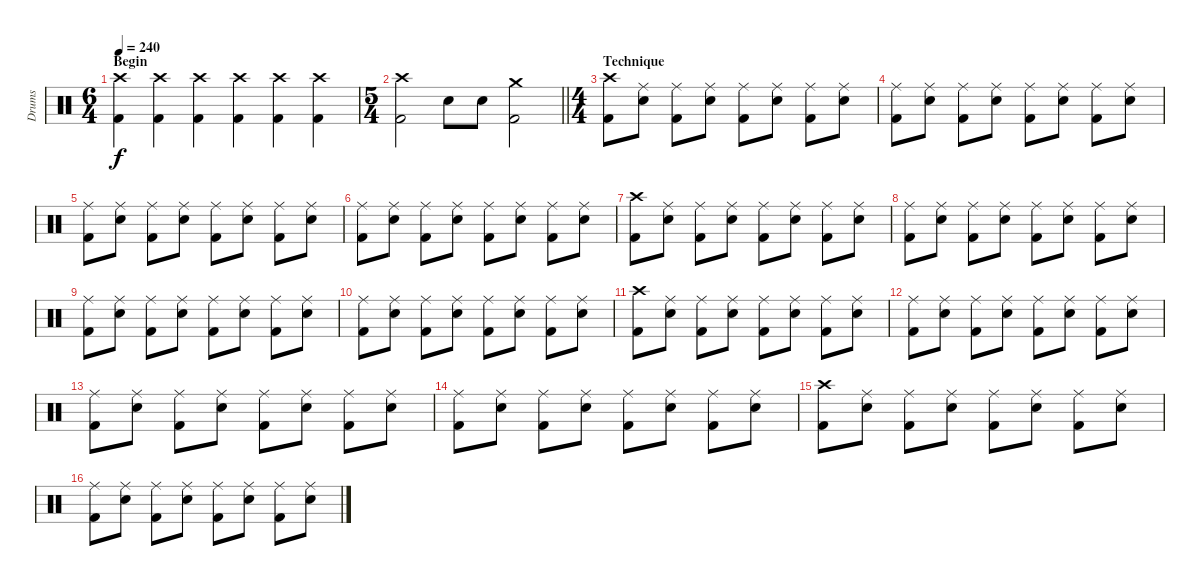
\track ("Drums" "Drums") {instrument percussion}
\staff {score}
\articulation defaults
\ts (6 4)
\section ("" "Begin")
\tempo 240
\clef neutral
\ks c
("Crash high (hit)" "Kick (hit) 2").4{dy f} ("Crash high (hit)" "Kick (hit) 2").4 ("Crash high (hit)" "Kick (hit) 2").4 ("Crash high (hit)" "Kick (hit) 2").4 ("Crash high (hit)" "Kick (hit) 2").4 ("Crash high (hit)" "Kick (hit) 2").4 |
\ts (5 4)
\barLineRight lightlight
("Crash high (hit)" "Kick (hit) 2").2 "Snare (hit) 2".8 "Snare (hit) 2".8 ("Crash medium (hit)" "Kick (hit) 2").2 |
\ts (4 4)
\section ("" "Technique")
("Crash high (hit)" "Kick (hit) 2").8 ("Ride (middle)" "Snare (hit) 2").8 ("Ride (middle)" "Kick (hit) 2").8 ("Ride (middle)" "Snare (hit) 2").8 ("Ride (middle)" "Kick (hit) 2").8 ("Ride (middle)" "Snare (hit) 2").8 ("Ride (middle)" "Kick (hit) 2").8 ("Ride (middle)" "Snare (hit) 2").8 |
("Ride (middle)" "Kick (hit) 2").8 ("Ride (middle)" "Snare (hit) 2").8 ("Ride (middle)" "Kick (hit) 2").8 ("Ride (middle)" "Snare (hit) 2").8 ("Ride (middle)" "Kick (hit) 2").8 ("Ride (middle)" "Snare (hit) 2").8 ("Ride (middle)" "Kick (hit) 2").8 ("Ride (middle)" "Snare (hit) 2").8 |
("Ride (middle)" "Kick (hit) 2").8 ("Ride (middle)" "Snare (hit) 2").8 ("Ride (middle)" "Kick (hit) 2").8 ("Ride (middle)" "Snare (hit) 2").8 ("Ride (middle)" "Kick (hit) 2").8 ("Ride (middle)" "Snare (hit) 2").8 ("Ride (middle)" "Kick (hit) 2").8 ("Ride (middle)" "Snare (hit) 2").8 |
("Ride (middle)" "Kick (hit) 2").8 ("Ride (middle)" "Snare (hit) 2").8 ("Ride (middle)" "Kick (hit) 2").8 ("Ride (middle)" "Snare (hit) 2").8 ("Ride (middle)" "Kick (hit) 2").8 ("Ride (middle)" "Snare (hit) 2").8 ("Ride (middle)" "Kick (hit) 2").8 ("Ride (middle)" "Snare (hit) 2").8 |
("Crash high (hit)" "Kick (hit) 2").8 ("Ride (middle)" "Snare (hit) 2").8 ("Ride (middle)" "Kick (hit) 2").8 ("Ride (middle)" "Snare (hit) 2").8 ("Ride (middle)" "Kick (hit) 2").8 ("Ride (middle)" "Snare (hit) 2").8 ("Ride (middle)" "Kick (hit) 2").8 ("Ride (middle)" "Snare (hit) 2").8 |
("Ride (middle)" "Kick (hit) 2").8 ("Ride (middle)" "Snare (hit) 2").8 ("Ride (middle)" "Kick (hit) 2").8 ("Ride (middle)" "Snare (hit) 2").8 ("Ride (middle)" "Kick (hit) 2").8 ("Ride (middle)" "Snare (hit) 2").8 ("Ride (middle)" "Kick (hit) 2").8 ("Ride (middle)" "Snare (hit) 2").8 |
("Ride (middle)" "Kick (hit) 2").8 ("Ride (middle)" "Snare (hit) 2").8 ("Ride (middle)" "Kick (hit) 2").8 ("Ride (middle)" "Snare (hit) 2").8 ("Ride (middle)" "Kick (hit) 2").8 ("Ride (middle)" "Snare (hit) 2").8 ("Ride (middle)" "Kick (hit) 2").8 ("Ride (middle)" "Snare (hit) 2").8 |
("Ride (middle)" "Kick (hit) 2").8 ("Ride (middle)" "Snare (hit) 2").8 ("Ride (middle)" "Kick (hit) 2").8 ("Ride (middle)" "Snare (hit) 2").8 ("Ride (middle)" "Kick (hit) 2").8 ("Ride (middle)" "Snare (hit) 2").8 ("Ride (middle)" "Kick (hit) 2").8 ("Ride (middle)" "Snare (hit) 2").8 |
("Crash high (hit)" "Kick (hit) 2").8 ("Ride (middle)" "Snare (hit) 2").8 ("Ride (middle)" "Kick (hit) 2").8 ("Ride (middle)" "Snare (hit) 2").8 ("Ride (middle)" "Kick (hit) 2").8 ("Ride (middle)" "Snare (hit) 2").8 ("Ride (middle)" "Kick (hit) 2").8 ("Ride (middle)" "Snare (hit) 2").8 |
("Ride (middle)" "Kick (hit) 2").8 ("Ride (middle)" "Snare (hit) 2").8 ("Ride (middle)" "Kick (hit) 2").8 ("Ride (middle)" "Snare (hit) 2").8 ("Ride (middle)" "Kick (hit) 2").8 ("Ride (middle)" "Snare (hit) 2").8 ("Ride (middle)" "Kick (hit) 2").8 ("Ride (middle)" "Snare (hit) 2").8 |
("Ride (middle)" "Kick (hit) 2").8 ("Ride (middle)" "Snare (hit) 2").8 ("Ride (middle)" "Kick (hit) 2").8 ("Ride (middle)" "Snare (hit) 2").8 ("Ride (middle)" "Kick (hit) 2").8 ("Ride (middle)" "Snare (hit) 2").8 ("Ride (middle)" "Kick (hit) 2").8 ("Ride (middle)" "Snare (hit) 2").8 |
("Ride (middle)" "Kick (hit) 2").8 ("Ride (middle)" "Snare (hit) 2").8 ("Ride (middle)" "Kick (hit) 2").8 ("Ride (middle)" "Snare (hit) 2").8 ("Ride (middle)" "Kick (hit) 2").8 ("Ride (middle)" "Snare (hit) 2").8 ("Ride (middle)" "Kick (hit) 2").8 ("Ride (middle)" "Snare (hit) 2").8 |
("Crash high (hit)" "Kick (hit) 2").8 ("Ride (middle)" "Snare (hit) 2").8 ("Ride (middle)" "Kick (hit) 2").8 ("Ride (middle)" "Snare (hit) 2").8 ("Ride (middle)" "Kick (hit) 2").8 ("Ride (middle)" "Snare (hit) 2").8 ("Ride (middle)" "Kick (hit) 2").8 ("Ride (middle)" "Snare (hit) 2").8 |
("Ride (middle)" "Kick (hit) 2").8 ("Ride (middle)" "Snare (hit) 2").8 ("Ride (middle)" "Kick (hit) 2").8 ("Ride (middle)" "Snare (hit) 2").8 ("Ride (middle)" "Kick (hit) 2").8 ("Ride (middle)" "Snare (hit) 2").8 ("Ride (middle)" "Kick (hit) 2").8 ("Ride (middle)" "Snare (hit) 2").8
